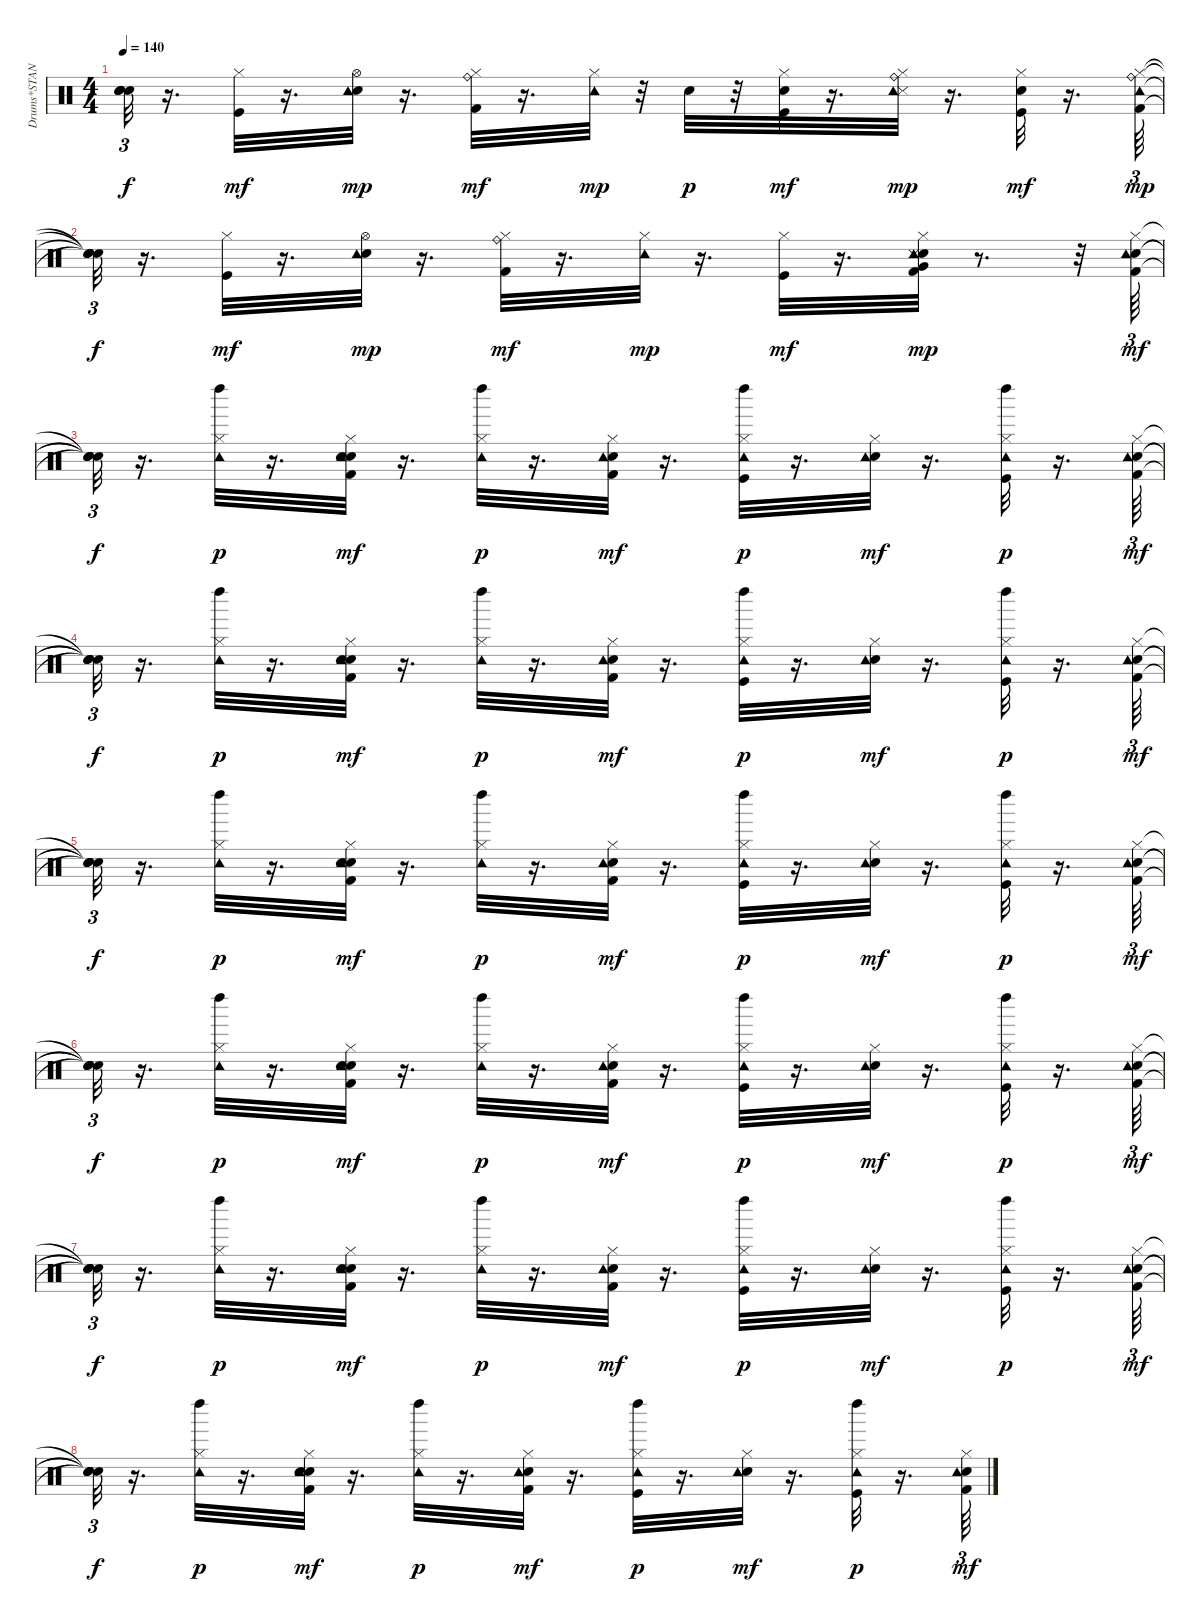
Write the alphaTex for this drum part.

\track ("Drums*STANDARD      " "Drums*STAN") {instrument percussion}
\staff {score}
\articulation defaults
\ts (4 4)
\tempo 140
\clef neutral
\ks c
("Snare (hit)"{t} "Snare (hit)"{t} "Snare (hit)"{t} "Snare (hit)"{t}).32{tu (3 2) dy f} r.16{d} ("Hi-Hat (closed)" "Kick (hit)").32{dy mf} r.16{d} ("Snare (hit) 2" "Hi-Hat (open)" "Tambourine (hit)").32{dy mp} r.16{d} ("Kick (hit) 2" "Hi-Hat (closed)" "Ride (bell)").32{dy mf} r.16{d} ("Hi-Hat (closed)" "Tambourine (hit)").32{dy mp} r.32 "Electric Snare (hit)".32{dy p} r.32 ("Hi-Hat (closed)" "Electric Snare (hit)" "Kick (hit)").32{dy mf} r.16{d} ("Hi-Hat (closed)" "Snare (side stick) 3" "Ride (bell)" "Tambourine (hit)").32{dy mp} r.16{d} ("Hi-Hat (closed)" "Electric Snare (hit)" "Kick (hit)").32{dy mf} r.16{d} ("Kick (hit) 2" "Hi-Hat (closed)" "Ride (bell)" "Tambourine (hit)").64{tu (3 2) dy mp} |
("Snare (hit)"{t} "Snare (hit)"{t} "Snare (hit)"{t} "Snare (hit)"{t}).32{tu (3 2) dy f} r.16{d} ("Hi-Hat (closed)" "Kick (hit)").32{dy mf} r.16{d} ("Snare (hit) 2" "Hi-Hat (open)" "Tambourine (hit)").32{dy mp} r.16{d} ("Kick (hit) 2" "Hi-Hat (closed)" "Ride (bell)").32{dy mf} r.16{d} ("Hi-Hat (closed)" "Tambourine (hit)").32{dy mp} r.16{d} ("Hi-Hat (closed)" "Kick (hit)").32{dy mf} r.16{d} ("Kick (hit) 2" "Snare (hit) 2" "Hi-Hat (closed)" "Snare (side stick) 3" "Very Low Tom (hit)" "Tambourine (hit)").32{dy mp} r.8{d} r.32 ("Kick (hit) 2" "Hi-Hat (closed)" "Electric Snare (hit)" "Tambourine (hit)").64{tu (3 2) dy mf} |
("Snare (hit)"{t} "Snare (hit)"{t} "Snare (hit)"{t} "Snare (hit)"{t}).32{tu (3 2) dy f} r.16{d} ("Hi-Hat (closed)" "Left Maraca (hit)" "Tambourine (hit)").32{dy p} r.16{d} ("Kick (hit) 2" "Hi-Hat (closed)" "Hand Clap (hit)" "Electric Snare (hit)" "Tambourine (hit)").32{dy mf} r.16{d} ("Hi-Hat (closed)" "Left Maraca (hit)" "Tambourine (hit)").32{dy p} r.16{d} ("Kick (hit) 2" "Hi-Hat (closed)" "Electric Snare (hit)" "Tambourine (hit)").32{dy mf} r.16{d} ("Hi-Hat (closed)" "Left Maraca (hit)" "Kick (hit)" "Tambourine (hit)").32{dy p} r.16{d} ("Hi-Hat (closed)" "Electric Snare (hit)" "Tambourine (hit)").32{dy mf} r.16{d} ("Hi-Hat (closed)" "Left Maraca (hit)" "Kick (hit)" "Tambourine (hit)").32{dy p} r.16{d} ("Kick (hit) 2" "Hi-Hat (closed)" "Electric Snare (hit)" "Tambourine (hit)").64{tu (3 2) dy mf} |
("Snare (hit)"{t} "Snare (hit)"{t} "Snare (hit)"{t} "Snare (hit)"{t}).32{tu (3 2) dy f} r.16{d} ("Hi-Hat (closed)" "Left Maraca (hit)" "Tambourine (hit)").32{dy p} r.16{d} ("Kick (hit) 2" "Hi-Hat (closed)" "Hand Clap (hit)" "Electric Snare (hit)" "Tambourine (hit)").32{dy mf} r.16{d} ("Hi-Hat (closed)" "Left Maraca (hit)" "Tambourine (hit)").32{dy p} r.16{d} ("Kick (hit) 2" "Hi-Hat (closed)" "Electric Snare (hit)" "Tambourine (hit)").32{dy mf} r.16{d} ("Hi-Hat (closed)" "Left Maraca (hit)" "Kick (hit)" "Tambourine (hit)").32{dy p} r.16{d} ("Hi-Hat (closed)" "Electric Snare (hit)" "Tambourine (hit)").32{dy mf} r.16{d} ("Hi-Hat (closed)" "Left Maraca (hit)" "Kick (hit)" "Tambourine (hit)").32{dy p} r.16{d} ("Kick (hit) 2" "Hi-Hat (closed)" "Electric Snare (hit)" "Tambourine (hit)").64{tu (3 2) dy mf} |
("Snare (hit)"{t} "Snare (hit)"{t} "Snare (hit)"{t} "Snare (hit)"{t}).32{tu (3 2) dy f} r.16{d} ("Hi-Hat (closed)" "Left Maraca (hit)" "Tambourine (hit)").32{dy p} r.16{d} ("Kick (hit) 2" "Hi-Hat (closed)" "Hand Clap (hit)" "Electric Snare (hit)" "Tambourine (hit)").32{dy mf} r.16{d} ("Hi-Hat (closed)" "Left Maraca (hit)" "Tambourine (hit)").32{dy p} r.16{d} ("Kick (hit) 2" "Hi-Hat (closed)" "Electric Snare (hit)" "Tambourine (hit)").32{dy mf} r.16{d} ("Hi-Hat (closed)" "Left Maraca (hit)" "Kick (hit)" "Tambourine (hit)").32{dy p} r.16{d} ("Hi-Hat (closed)" "Electric Snare (hit)" "Tambourine (hit)").32{dy mf} r.16{d} ("Hi-Hat (closed)" "Left Maraca (hit)" "Kick (hit)" "Tambourine (hit)").32{dy p} r.16{d} ("Kick (hit) 2" "Hi-Hat (closed)" "Electric Snare (hit)" "Tambourine (hit)").64{tu (3 2) dy mf} |
("Snare (hit)"{t} "Snare (hit)"{t} "Snare (hit)"{t} "Snare (hit)"{t}).32{tu (3 2) dy f} r.16{d} ("Hi-Hat (closed)" "Left Maraca (hit)" "Tambourine (hit)").32{dy p} r.16{d} ("Kick (hit) 2" "Hi-Hat (closed)" "Hand Clap (hit)" "Electric Snare (hit)" "Tambourine (hit)").32{dy mf} r.16{d} ("Hi-Hat (closed)" "Left Maraca (hit)" "Tambourine (hit)").32{dy p} r.16{d} ("Kick (hit) 2" "Hi-Hat (closed)" "Electric Snare (hit)" "Tambourine (hit)").32{dy mf} r.16{d} ("Hi-Hat (closed)" "Left Maraca (hit)" "Kick (hit)" "Tambourine (hit)").32{dy p} r.16{d} ("Hi-Hat (closed)" "Electric Snare (hit)" "Tambourine (hit)").32{dy mf} r.16{d} ("Hi-Hat (closed)" "Left Maraca (hit)" "Kick (hit)" "Tambourine (hit)").32{dy p} r.16{d} ("Kick (hit) 2" "Hi-Hat (closed)" "Electric Snare (hit)" "Tambourine (hit)").64{tu (3 2) dy mf} |
("Snare (hit)"{t} "Snare (hit)"{t} "Snare (hit)"{t} "Snare (hit)"{t}).32{tu (3 2) dy f} r.16{d} ("Hi-Hat (closed)" "Left Maraca (hit)" "Tambourine (hit)").32{dy p} r.16{d} ("Kick (hit) 2" "Hi-Hat (closed)" "Hand Clap (hit)" "Electric Snare (hit)" "Tambourine (hit)").32{dy mf} r.16{d} ("Hi-Hat (closed)" "Left Maraca (hit)" "Tambourine (hit)").32{dy p} r.16{d} ("Kick (hit) 2" "Hi-Hat (closed)" "Electric Snare (hit)" "Tambourine (hit)").32{dy mf} r.16{d} ("Hi-Hat (closed)" "Left Maraca (hit)" "Kick (hit)" "Tambourine (hit)").32{dy p} r.16{d} ("Hi-Hat (closed)" "Electric Snare (hit)" "Tambourine (hit)").32{dy mf} r.16{d} ("Hi-Hat (closed)" "Left Maraca (hit)" "Kick (hit)" "Tambourine (hit)").32{dy p} r.16{d} ("Kick (hit) 2" "Hi-Hat (closed)" "Electric Snare (hit)" "Tambourine (hit)").64{tu (3 2) dy mf} |
("Snare (hit)"{t} "Snare (hit)"{t} "Snare (hit)"{t} "Snare (hit)"{t}).32{tu (3 2) dy f} r.16{d} ("Hi-Hat (closed)" "Left Maraca (hit)" "Tambourine (hit)").32{dy p} r.16{d} ("Kick (hit) 2" "Hi-Hat (closed)" "Hand Clap (hit)" "Electric Snare (hit)" "Tambourine (hit)").32{dy mf} r.16{d} ("Hi-Hat (closed)" "Left Maraca (hit)" "Tambourine (hit)").32{dy p} r.16{d} ("Kick (hit) 2" "Hi-Hat (closed)" "Electric Snare (hit)" "Tambourine (hit)").32{dy mf} r.16{d} ("Hi-Hat (closed)" "Left Maraca (hit)" "Kick (hit)" "Tambourine (hit)").32{dy p} r.16{d} ("Hi-Hat (closed)" "Electric Snare (hit)" "Tambourine (hit)").32{dy mf} r.16{d} ("Hi-Hat (closed)" "Left Maraca (hit)" "Kick (hit)" "Tambourine (hit)").32{dy p} r.16{d} ("Kick (hit) 2" "Hi-Hat (closed)" "Electric Snare (hit)" "Tambourine (hit)").64{tu (3 2) dy mf}
